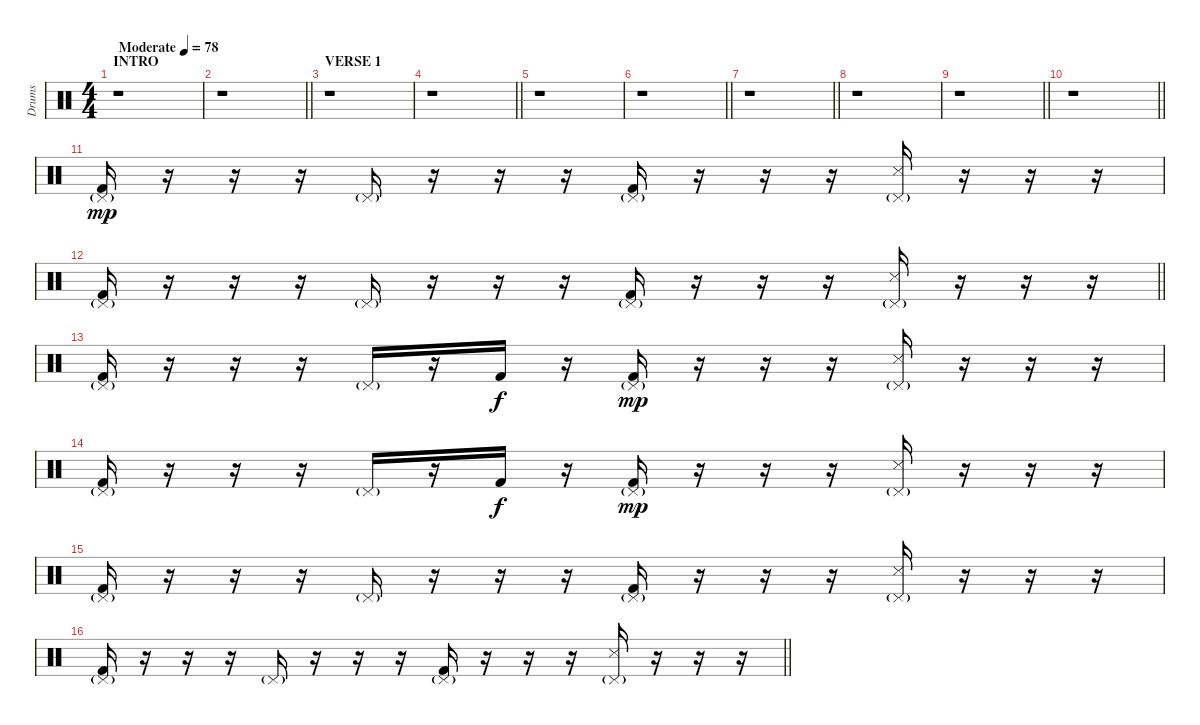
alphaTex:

\track ("Drums" "Drums") {instrument percussion}
\staff {score}
\articulation defaults
\ts (4 4)
\section ("" "INTRO")
\tempo (78 "Moderate")
\clef neutral
\ks c
r.1{dy mp} |
\barLineRight lightlight
r.1 |
\section ("" "VERSE 1")
r.1 |
\barLineRight lightlight
r.1 |
r.1 |
\barLineRight lightlight
r.1 |
\barLineRight lightlight
r.1 |
r.1 |
\barLineRight lightlight
r.1 |
\barLineRight lightlight
r.1 |
\section ("" "")
("Pedal Hi-Hat (hit)"{g} "Kick (hit) 2").16 r.16 r.16 r.16 "Pedal Hi-Hat (hit)"{g}.16 r.16 r.16 r.16 ("Pedal Hi-Hat (hit)"{g} "Kick (hit) 2").16 r.16 r.16 r.16 ("Pedal Hi-Hat (hit)"{g} "Snare (side stick) 3").16 r.16 r.16 r.16 |
\barLineRight lightlight
("Pedal Hi-Hat (hit)"{g} "Kick (hit) 2").16 r.16 r.16 r.16 "Pedal Hi-Hat (hit)"{g}.16 r.16 r.16 r.16 ("Pedal Hi-Hat (hit)"{g} "Kick (hit) 2").16 r.16 r.16 r.16 ("Pedal Hi-Hat (hit)"{g} "Snare (side stick) 3").16 r.16 r.16 r.16 |
("Pedal Hi-Hat (hit)"{g} "Kick (hit) 2").16 r.16 r.16 r.16 "Pedal Hi-Hat (hit)"{g}.16 r.16 "Kick (hit) 2".16{dy f} r.16 ("Pedal Hi-Hat (hit)"{g} "Kick (hit) 2").16{dy mp} r.16 r.16 r.16 ("Pedal Hi-Hat (hit)"{g} "Snare (side stick) 3").16 r.16 r.16 r.16 |
("Pedal Hi-Hat (hit)"{g} "Kick (hit) 2").16 r.16 r.16 r.16 "Pedal Hi-Hat (hit)"{g}.16 r.16 "Kick (hit) 2".16{dy f} r.16 ("Pedal Hi-Hat (hit)"{g} "Kick (hit) 2").16{dy mp} r.16 r.16 r.16 ("Pedal Hi-Hat (hit)"{g} "Snare (side stick) 3").16 r.16 r.16 r.16 |
("Pedal Hi-Hat (hit)"{g} "Kick (hit) 2").16 r.16 r.16 r.16 "Pedal Hi-Hat (hit)"{g}.16 r.16 r.16 r.16 ("Pedal Hi-Hat (hit)"{g} "Kick (hit) 2").16 r.16 r.16 r.16 ("Pedal Hi-Hat (hit)"{g} "Snare (side stick) 3").16 r.16 r.16 r.16 |
\barLineRight lightlight
("Pedal Hi-Hat (hit)"{g} "Kick (hit) 2").16 r.16 r.16 r.16 "Pedal Hi-Hat (hit)"{g}.16 r.16 r.16 r.16 ("Pedal Hi-Hat (hit)"{g} "Kick (hit) 2").16 r.16 r.16 r.16 ("Pedal Hi-Hat (hit)"{g} "Snare (side stick) 3").16 r.16 r.16 r.16
